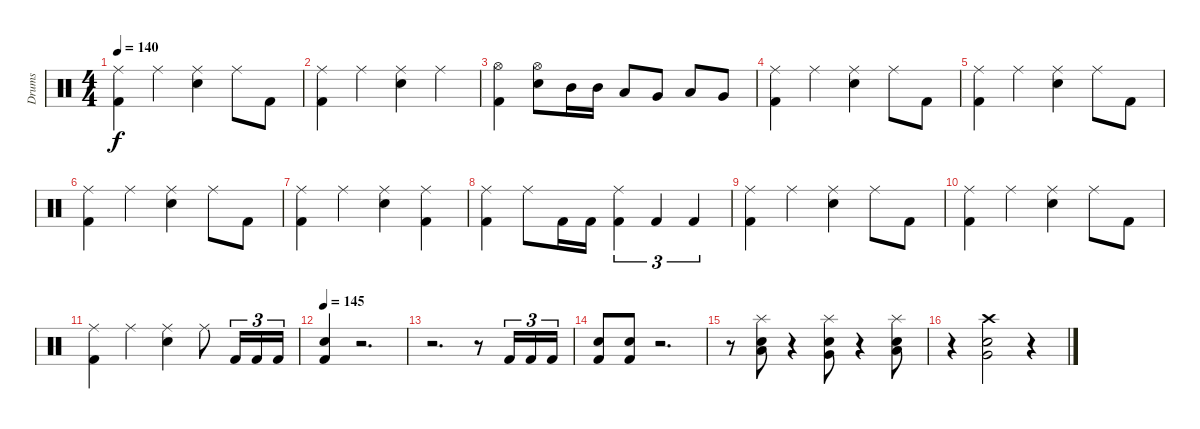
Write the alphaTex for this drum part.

\track ("Drums" "Drums") {instrument percussion}
\staff {score}
\articulation defaults
\ts (4 4)
\tempo 140
\clef neutral
\ks c
("Ride (middle)" "Kick (hit) 2").4{dy f} "Ride (middle)".4 ("Ride (middle)" "Electric Snare (hit)").4 "Ride (middle)".8 "Kick (hit) 2".8 |
("Ride (middle)" "Kick (hit) 2").4 "Ride (middle)".4 ("Ride (middle)" "Electric Snare (hit)").4 "Ride (middle)".4 |
("Hi-Hat (open)" "Kick (hit) 2").4 ("Hi-Hat (open)" "Electric Snare (hit)").8 "Mid Tom (hit)".16 "Mid Tom (hit)".16 "Low Tom (hit)".8 "Very Low Tom (hit)".8 "Low Tom (hit)".8 "Very Low Tom (hit)".8 |
("Ride (middle)" "Kick (hit) 2").4 "Ride (middle)".4 ("Ride (middle)" "Electric Snare (hit)").4 "Ride (middle)".8 "Kick (hit) 2".8 |
("Ride (middle)" "Kick (hit) 2").4 "Ride (middle)".4 ("Ride (middle)" "Electric Snare (hit)").4 "Ride (middle)".8 "Kick (hit) 2".8 |
("Ride (middle)" "Kick (hit) 2").4 "Ride (middle)".4 ("Ride (middle)" "Electric Snare (hit)").4 "Ride (middle)".8 "Kick (hit) 2".8 |
("Ride (middle)" "Kick (hit) 2").4 "Ride (middle)".4 ("Ride (middle)" "Electric Snare (hit)").4 ("Ride (middle)" "Kick (hit) 2").4 |
("Ride (middle)" "Kick (hit) 2").4 "Ride (middle)".8 "Kick (hit) 2".16 "Kick (hit) 2".16 ("Ride (middle)" "Kick (hit) 2").4{tu (3 2)} "Kick (hit) 2".4{tu (3 2)} "Kick (hit) 2".4{tu (3 2)} |
("Ride (middle)" "Kick (hit) 2").4 "Ride (middle)".4 ("Ride (middle)" "Electric Snare (hit)").4 "Ride (middle)".8 "Kick (hit) 2".8 |
("Ride (middle)" "Kick (hit) 2").4 "Ride (middle)".4 ("Ride (middle)" "Electric Snare (hit)").4 "Ride (middle)".8 "Kick (hit) 2".8 |
("Ride (middle)" "Kick (hit) 2").4 "Ride (middle)".4 ("Ride (middle)" "Electric Snare (hit)").4 "Ride (middle)".8 "Kick (hit) 2".16{tu (3 2)} "Kick (hit) 2".16{tu (3 2)} "Kick (hit) 2".16{tu (3 2)} |
\tempo 145
("Electric Snare (hit)" "Kick (hit) 2").4 r.2{d} |
r.2{d} r.8 "Kick (hit) 2".16{tu (3 2)} "Kick (hit) 2".16{tu (3 2)} "Kick (hit) 2".16{tu (3 2)} |
("Electric Snare (hit)" "Kick (hit) 2").8 ("Electric Snare (hit)" "Kick (hit) 2").8 r.2{d} |
r.8 ("Splash (hit)" "Electric Snare (hit)" "Low Tom (hit)").8 r.4 ("Splash (hit)" "Electric Snare (hit)" "Very Low Tom (hit)").8 r.4 ("Splash (hit)" "Electric Snare (hit)" "Low Tom (hit)").8 |
r.4 ("Crash high (hit)" "Electric Snare (hit)" "Very Low Tom (hit)").2 r.4
